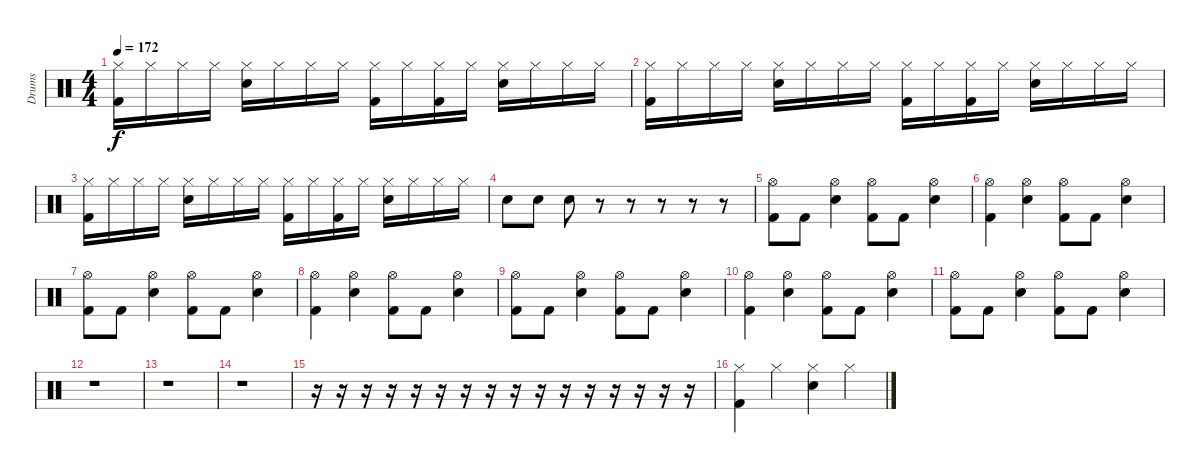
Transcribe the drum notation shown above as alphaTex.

\track ("Drums" "Drums") {instrument percussion}
\staff {score}
\articulation defaults
\ts (4 4)
\tempo 172
\clef neutral
\ks c
("Hi-Hat (closed)" "Kick (hit) 2").16{dy f} "Hi-Hat (closed)".16 "Hi-Hat (closed)".16 "Hi-Hat (closed)".16 ("Hi-Hat (closed)" "Electric Snare (hit)").16 "Hi-Hat (closed)".16 "Hi-Hat (closed)".16 "Hi-Hat (closed)".16 ("Hi-Hat (closed)" "Kick (hit) 2").16 "Hi-Hat (closed)".16 ("Hi-Hat (closed)" "Kick (hit) 2").16 "Hi-Hat (closed)".16 ("Hi-Hat (closed)" "Electric Snare (hit)").16 "Hi-Hat (closed)".16 "Hi-Hat (closed)".16 "Hi-Hat (closed)".16 |
("Hi-Hat (closed)" "Kick (hit) 2").16 "Hi-Hat (closed)".16 "Hi-Hat (closed)".16 "Hi-Hat (closed)".16 ("Hi-Hat (closed)" "Electric Snare (hit)").16 "Hi-Hat (closed)".16 "Hi-Hat (closed)".16 "Hi-Hat (closed)".16 ("Hi-Hat (closed)" "Kick (hit) 2").16 "Hi-Hat (closed)".16 ("Hi-Hat (closed)" "Kick (hit) 2").16 "Hi-Hat (closed)".16 ("Hi-Hat (closed)" "Electric Snare (hit)").16 "Hi-Hat (closed)".16 "Hi-Hat (closed)".16 "Hi-Hat (closed)".16 |
("Hi-Hat (closed)" "Kick (hit) 2").16 "Hi-Hat (closed)".16 "Hi-Hat (closed)".16 "Hi-Hat (closed)".16 ("Hi-Hat (closed)" "Electric Snare (hit)").16 "Hi-Hat (closed)".16 "Hi-Hat (closed)".16 "Hi-Hat (closed)".16 ("Hi-Hat (closed)" "Kick (hit) 2").16 "Hi-Hat (closed)".16 ("Hi-Hat (closed)" "Kick (hit) 2").16 "Hi-Hat (closed)".16 ("Hi-Hat (closed)" "Electric Snare (hit)").16 "Hi-Hat (closed)".16 "Hi-Hat (closed)".16 "Hi-Hat (closed)".16 |
"Electric Snare (hit)".8 "Electric Snare (hit)".8 "Electric Snare (hit)".8 r.8 r.8 r.8 r.8 r.8 |
("Hi-Hat (open)" "Kick (hit) 2").8 "Kick (hit) 2".8 ("Hi-Hat (open)" "Electric Snare (hit)").4 ("Hi-Hat (open)" "Kick (hit) 2").8 "Kick (hit) 2".8 ("Hi-Hat (open)" "Electric Snare (hit)").4 |
("Hi-Hat (open)" "Kick (hit) 2").4 ("Hi-Hat (open)" "Electric Snare (hit)").4 ("Hi-Hat (open)" "Kick (hit) 2").8 "Kick (hit) 2".8 ("Hi-Hat (open)" "Electric Snare (hit)").4 |
("Hi-Hat (open)" "Kick (hit) 2").8 "Kick (hit) 2".8 ("Hi-Hat (open)" "Electric Snare (hit)").4 ("Hi-Hat (open)" "Kick (hit) 2").8 "Kick (hit) 2".8 ("Hi-Hat (open)" "Electric Snare (hit)").4 |
("Hi-Hat (open)" "Kick (hit) 2").4 ("Hi-Hat (open)" "Electric Snare (hit)").4 ("Hi-Hat (open)" "Kick (hit) 2").8 "Kick (hit) 2".8 ("Hi-Hat (open)" "Electric Snare (hit)").4 |
("Hi-Hat (open)" "Kick (hit) 2").8 "Kick (hit) 2".8 ("Hi-Hat (open)" "Electric Snare (hit)").4 ("Hi-Hat (open)" "Kick (hit) 2").8 "Kick (hit) 2".8 ("Hi-Hat (open)" "Electric Snare (hit)").4 |
("Hi-Hat (open)" "Kick (hit) 2").4 ("Hi-Hat (open)" "Electric Snare (hit)").4 ("Hi-Hat (open)" "Kick (hit) 2").8 "Kick (hit) 2".8 ("Hi-Hat (open)" "Electric Snare (hit)").4 |
("Hi-Hat (open)" "Kick (hit) 2").8 "Kick (hit) 2".8 ("Hi-Hat (open)" "Electric Snare (hit)").4 ("Hi-Hat (open)" "Kick (hit) 2").8 "Kick (hit) 2".8 ("Hi-Hat (open)" "Electric Snare (hit)").4 |
r.1 |
r.1 |
r.1 |
r.16 r.16 r.16 r.16 r.16 r.16 r.16 r.16 r.16 r.16 r.16 r.16 r.16 r.16 r.16 r.16 |
("Hi-Hat (closed)" "Kick (hit) 2").4 "Hi-Hat (closed)".4 ("Hi-Hat (closed)" "Electric Snare (hit)").4 "Hi-Hat (closed)".4
